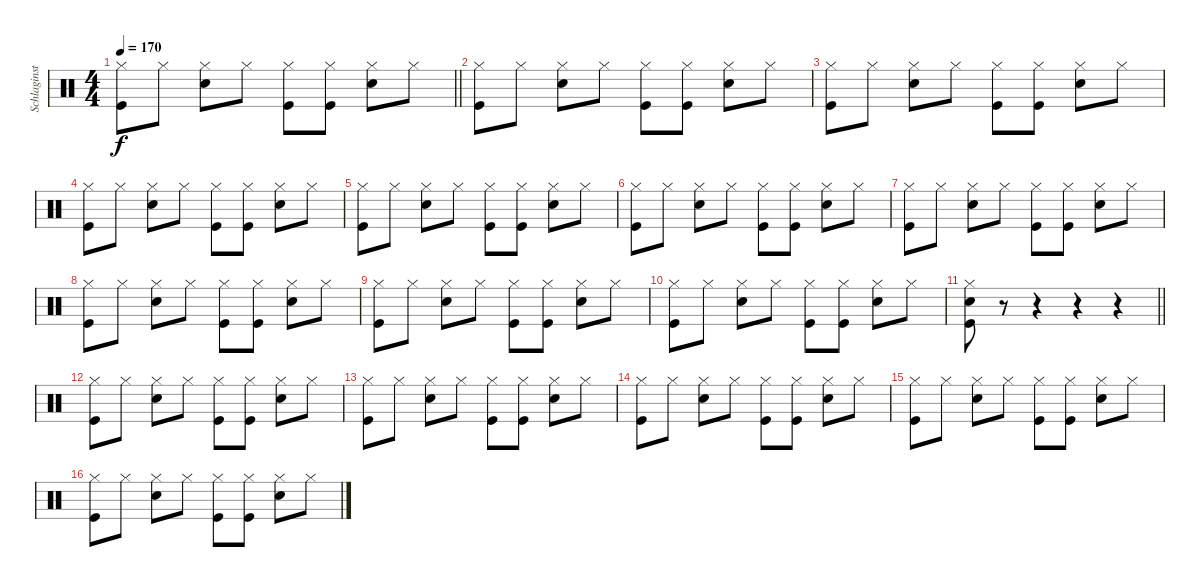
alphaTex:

\track ("Schlaginstrumente - Auswahl" "Schlaginst") {instrument percussion}
\staff {score}
\articulation defaults
\ts (4 4)
\tempo 170
\clef neutral
\barLineRight lightlight
\ks c
("Hi-Hat (closed)" "Kick (hit)").8{dy f} "Hi-Hat (closed)".8 ("Hi-Hat (closed)" "Electric Snare (hit)").8 "Hi-Hat (closed)".8 ("Hi-Hat (closed)" "Kick (hit)").8 ("Hi-Hat (closed)" "Kick (hit)").8 ("Hi-Hat (closed)" "Electric Snare (hit)").8 "Hi-Hat (closed)".8 |
("Hi-Hat (closed)" "Kick (hit)").8 "Hi-Hat (closed)".8 ("Hi-Hat (closed)" "Electric Snare (hit)").8 "Hi-Hat (closed)".8 ("Hi-Hat (closed)" "Kick (hit)").8 ("Hi-Hat (closed)" "Kick (hit)").8 ("Hi-Hat (closed)" "Electric Snare (hit)").8 "Hi-Hat (closed)".8 |
("Hi-Hat (closed)" "Kick (hit)").8 "Hi-Hat (closed)".8 ("Hi-Hat (closed)" "Electric Snare (hit)").8 "Hi-Hat (closed)".8 ("Hi-Hat (closed)" "Kick (hit)").8 ("Hi-Hat (closed)" "Kick (hit)").8 ("Hi-Hat (closed)" "Electric Snare (hit)").8 "Hi-Hat (closed)".8 |
("Hi-Hat (closed)" "Kick (hit)").8 "Hi-Hat (closed)".8 ("Hi-Hat (closed)" "Electric Snare (hit)").8 "Hi-Hat (closed)".8 ("Hi-Hat (closed)" "Kick (hit)").8 ("Hi-Hat (closed)" "Kick (hit)").8 ("Hi-Hat (closed)" "Electric Snare (hit)").8 "Hi-Hat (closed)".8 |
("Hi-Hat (closed)" "Kick (hit)").8 "Hi-Hat (closed)".8 ("Hi-Hat (closed)" "Electric Snare (hit)").8 "Hi-Hat (closed)".8 ("Hi-Hat (closed)" "Kick (hit)").8 ("Hi-Hat (closed)" "Kick (hit)").8 ("Hi-Hat (closed)" "Electric Snare (hit)").8 "Hi-Hat (closed)".8 |
("Hi-Hat (closed)" "Kick (hit)").8 "Hi-Hat (closed)".8 ("Hi-Hat (closed)" "Electric Snare (hit)").8 "Hi-Hat (closed)".8 ("Hi-Hat (closed)" "Kick (hit)").8 ("Hi-Hat (closed)" "Kick (hit)").8 ("Hi-Hat (closed)" "Electric Snare (hit)").8 "Hi-Hat (closed)".8 |
("Hi-Hat (closed)" "Kick (hit)").8 "Hi-Hat (closed)".8 ("Hi-Hat (closed)" "Electric Snare (hit)").8 "Hi-Hat (closed)".8 ("Hi-Hat (closed)" "Kick (hit)").8 ("Hi-Hat (closed)" "Kick (hit)").8 ("Hi-Hat (closed)" "Electric Snare (hit)").8 "Hi-Hat (closed)".8 |
("Hi-Hat (closed)" "Kick (hit)").8 "Hi-Hat (closed)".8 ("Hi-Hat (closed)" "Electric Snare (hit)").8 "Hi-Hat (closed)".8 ("Hi-Hat (closed)" "Kick (hit)").8 ("Hi-Hat (closed)" "Kick (hit)").8 ("Hi-Hat (closed)" "Electric Snare (hit)").8 "Hi-Hat (closed)".8 |
("Hi-Hat (closed)" "Kick (hit)").8 "Hi-Hat (closed)".8 ("Hi-Hat (closed)" "Electric Snare (hit)").8 "Hi-Hat (closed)".8 ("Hi-Hat (closed)" "Kick (hit)").8 ("Hi-Hat (closed)" "Kick (hit)").8 ("Hi-Hat (closed)" "Electric Snare (hit)").8 "Hi-Hat (closed)".8 |
("Hi-Hat (closed)" "Kick (hit)").8 "Hi-Hat (closed)".8 ("Hi-Hat (closed)" "Electric Snare (hit)").8 "Hi-Hat (closed)".8 ("Hi-Hat (closed)" "Kick (hit)").8 ("Hi-Hat (closed)" "Kick (hit)").8 ("Hi-Hat (closed)" "Electric Snare (hit)").8 "Hi-Hat (closed)".8 |
\barLineRight lightlight
("Hi-Hat (closed)" "Electric Snare (hit)" "Kick (hit)").8 r.8 r.4 r.4 r.4 |
("Hi-Hat (closed)" "Kick (hit)").8 "Hi-Hat (closed)".8 ("Hi-Hat (closed)" "Electric Snare (hit)").8 "Hi-Hat (closed)".8 ("Hi-Hat (closed)" "Kick (hit)").8 ("Hi-Hat (closed)" "Kick (hit)").8 ("Hi-Hat (closed)" "Electric Snare (hit)").8 "Hi-Hat (closed)".8 |
("Hi-Hat (closed)" "Kick (hit)").8 "Hi-Hat (closed)".8 ("Hi-Hat (closed)" "Electric Snare (hit)").8 "Hi-Hat (closed)".8 ("Hi-Hat (closed)" "Kick (hit)").8 ("Hi-Hat (closed)" "Kick (hit)").8 ("Hi-Hat (closed)" "Electric Snare (hit)").8 "Hi-Hat (closed)".8 |
("Hi-Hat (closed)" "Kick (hit)").8 "Hi-Hat (closed)".8 ("Hi-Hat (closed)" "Electric Snare (hit)").8 "Hi-Hat (closed)".8 ("Hi-Hat (closed)" "Kick (hit)").8 ("Hi-Hat (closed)" "Kick (hit)").8 ("Hi-Hat (closed)" "Electric Snare (hit)").8 "Hi-Hat (closed)".8 |
("Hi-Hat (closed)" "Kick (hit)").8 "Hi-Hat (closed)".8 ("Hi-Hat (closed)" "Electric Snare (hit)").8 "Hi-Hat (closed)".8 ("Hi-Hat (closed)" "Kick (hit)").8 ("Hi-Hat (closed)" "Kick (hit)").8 ("Hi-Hat (closed)" "Electric Snare (hit)").8 "Hi-Hat (closed)".8 |
("Hi-Hat (closed)" "Kick (hit)").8 "Hi-Hat (closed)".8 ("Hi-Hat (closed)" "Electric Snare (hit)").8 "Hi-Hat (closed)".8 ("Hi-Hat (closed)" "Kick (hit)").8 ("Hi-Hat (closed)" "Kick (hit)").8 ("Hi-Hat (closed)" "Electric Snare (hit)").8 "Hi-Hat (closed)".8
